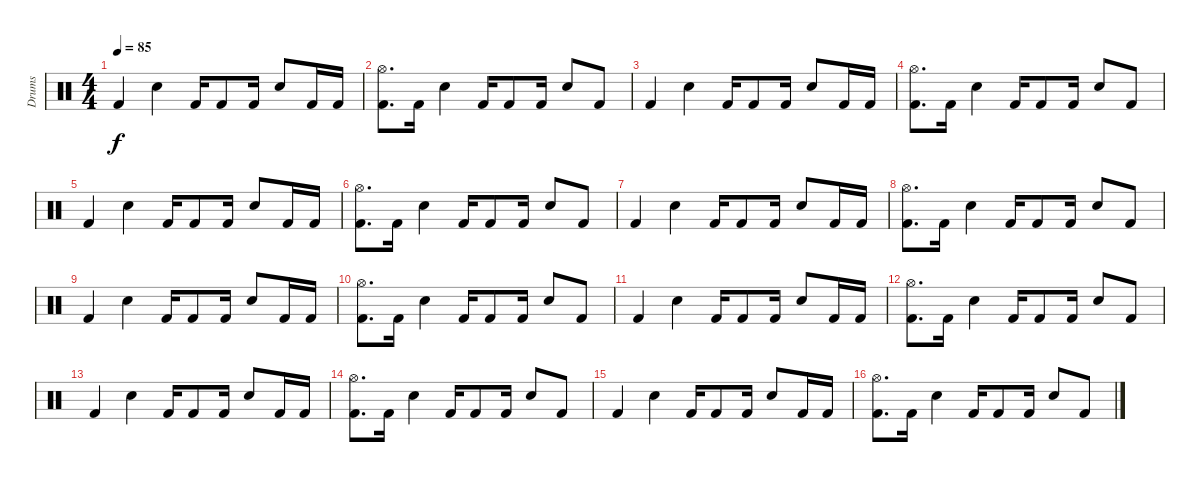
\track ("Drums" "Drums") {instrument percussion}
\staff {score}
\articulation defaults
\ts (4 4)
\tempo 85
\clef neutral
\ks c "Kick (hit) 2".4{dy f} "Snare (hit) 2".4 "Kick (hit) 2".16 "Kick (hit) 2".8 "Kick (hit) 2".16 "Snare (hit) 2".8 "Kick (hit) 2".16 "Kick (hit) 2".16
|
("Hi-Hat (open)" "Kick (hit) 2").8{d} "Kick (hit) 2".16 "Snare (hit) 2".4 "Kick (hit) 2".16 "Kick (hit) 2".8 "Kick (hit) 2".16 "Snare (hit) 2".8 "Kick (hit) 2".8 |
"Kick (hit) 2".4 "Snare (hit) 2".4 "Kick (hit) 2".16 "Kick (hit) 2".8 "Kick (hit) 2".16 "Snare (hit) 2".8 "Kick (hit) 2".16 "Kick (hit) 2".16 |
("Hi-Hat (open)" "Kick (hit) 2").8{d} "Kick (hit) 2".16 "Snare (hit) 2".4 "Kick (hit) 2".16 "Kick (hit) 2".8 "Kick (hit) 2".16 "Snare (hit) 2".8 "Kick (hit) 2".8 |
"Kick (hit) 2".4 "Snare (hit) 2".4 "Kick (hit) 2".16 "Kick (hit) 2".8 "Kick (hit) 2".16 "Snare (hit) 2".8 "Kick (hit) 2".16 "Kick (hit) 2".16 |
("Hi-Hat (open)" "Kick (hit) 2").8{d} "Kick (hit) 2".16 "Snare (hit) 2".4 "Kick (hit) 2".16 "Kick (hit) 2".8 "Kick (hit) 2".16 "Snare (hit) 2".8 "Kick (hit) 2".8 |
"Kick (hit) 2".4 "Snare (hit) 2".4 "Kick (hit) 2".16 "Kick (hit) 2".8 "Kick (hit) 2".16 "Snare (hit) 2".8 "Kick (hit) 2".16 "Kick (hit) 2".16 |
("Hi-Hat (open)" "Kick (hit) 2").8{d} "Kick (hit) 2".16 "Snare (hit) 2".4 "Kick (hit) 2".16 "Kick (hit) 2".8 "Kick (hit) 2".16 "Snare (hit) 2".8 "Kick (hit) 2".8 |
"Kick (hit) 2".4 "Snare (hit) 2".4 "Kick (hit) 2".16 "Kick (hit) 2".8 "Kick (hit) 2".16 "Snare (hit) 2".8 "Kick (hit) 2".16 "Kick (hit) 2".16 |
("Hi-Hat (open)" "Kick (hit) 2").8{d} "Kick (hit) 2".16 "Snare (hit) 2".4 "Kick (hit) 2".16 "Kick (hit) 2".8 "Kick (hit) 2".16 "Snare (hit) 2".8 "Kick (hit) 2".8 |
"Kick (hit) 2".4 "Snare (hit) 2".4 "Kick (hit) 2".16 "Kick (hit) 2".8 "Kick (hit) 2".16 "Snare (hit) 2".8 "Kick (hit) 2".16 "Kick (hit) 2".16 |
("Hi-Hat (open)" "Kick (hit) 2").8{d} "Kick (hit) 2".16 "Snare (hit) 2".4 "Kick (hit) 2".16 "Kick (hit) 2".8 "Kick (hit) 2".16 "Snare (hit) 2".8 "Kick (hit) 2".8 |
"Kick (hit) 2".4 "Snare (hit) 2".4 "Kick (hit) 2".16 "Kick (hit) 2".8 "Kick (hit) 2".16 "Snare (hit) 2".8 "Kick (hit) 2".16 "Kick (hit) 2".16 |
("Hi-Hat (open)" "Kick (hit) 2").8{d} "Kick (hit) 2".16 "Snare (hit) 2".4 "Kick (hit) 2".16 "Kick (hit) 2".8 "Kick (hit) 2".16 "Snare (hit) 2".8 "Kick (hit) 2".8 |
"Kick (hit) 2".4 "Snare (hit) 2".4 "Kick (hit) 2".16 "Kick (hit) 2".8 "Kick (hit) 2".16 "Snare (hit) 2".8 "Kick (hit) 2".16 "Kick (hit) 2".16 |
("Hi-Hat (open)" "Kick (hit) 2").8{d} "Kick (hit) 2".16 "Snare (hit) 2".4 "Kick (hit) 2".16 "Kick (hit) 2".8 "Kick (hit) 2".16 "Snare (hit) 2".8 "Kick (hit) 2".8
